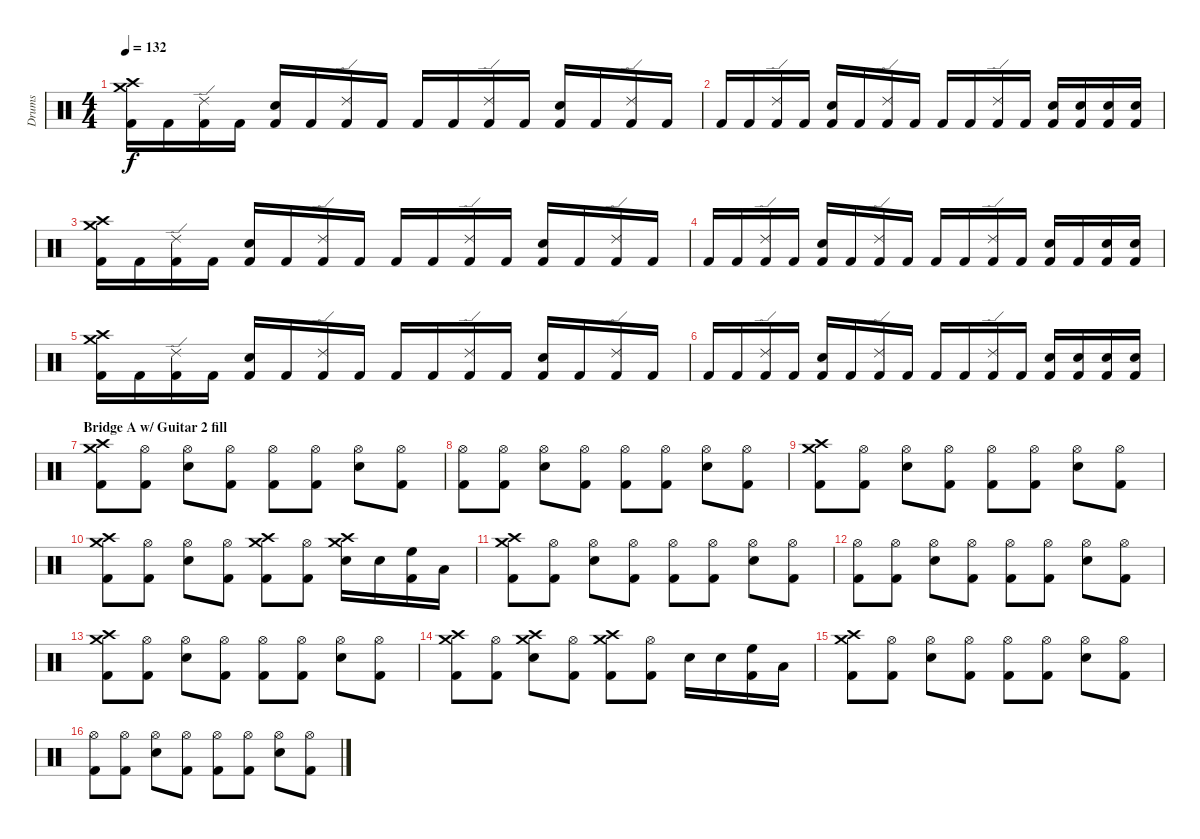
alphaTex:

\track ("Drums" "Drums") {instrument percussion}
\staff {score}
\articulation defaults
\ts (4 4)
\tempo 132
\clef neutral
\ks c
("Crash medium (hit)" "Crash high (hit)" "Kick (hit) 2").16{dy f} "Kick (hit) 2".16 ("Ride (edge) 2" "Kick (hit) 2").16 "Kick (hit) 2".16 ("Electric Snare (hit)" "Kick (hit) 2").16 "Kick (hit) 2".16 ("Ride (edge) 2" "Kick (hit) 2").16 "Kick (hit) 2".16 "Kick (hit) 2".16 "Kick (hit) 2".16 ("Ride (edge) 2" "Kick (hit) 2").16 "Kick (hit) 2".16 ("Electric Snare (hit)" "Kick (hit) 2").16 "Kick (hit) 2".16 ("Ride (edge) 2" "Kick (hit) 2").16 "Kick (hit) 2".16 |
"Kick (hit) 2".16 "Kick (hit) 2".16 ("Ride (edge) 2" "Kick (hit) 2").16 "Kick (hit) 2".16 ("Electric Snare (hit)" "Kick (hit) 2").16 "Kick (hit) 2".16 ("Ride (edge) 2" "Kick (hit) 2").16 "Kick (hit) 2".16 "Kick (hit) 2".16 "Kick (hit) 2".16 ("Ride (edge) 2" "Kick (hit) 2").16 "Kick (hit) 2".16 ("Electric Snare (hit)" "Kick (hit) 2").16 ("Electric Snare (hit)" "Kick (hit) 2").16 ("Electric Snare (hit)" "Kick (hit) 2").16 ("Electric Snare (hit)" "Kick (hit) 2").16 |
("Crash medium (hit)" "Crash high (hit)" "Kick (hit) 2").16 "Kick (hit) 2".16 ("Ride (edge) 2" "Kick (hit) 2").16 "Kick (hit) 2".16 ("Electric Snare (hit)" "Kick (hit) 2").16 "Kick (hit) 2".16 ("Ride (edge) 2" "Kick (hit) 2").16 "Kick (hit) 2".16 "Kick (hit) 2".16 "Kick (hit) 2".16 ("Ride (edge) 2" "Kick (hit) 2").16 "Kick (hit) 2".16 ("Electric Snare (hit)" "Kick (hit) 2").16 "Kick (hit) 2".16 ("Ride (edge) 2" "Kick (hit) 2").16 "Kick (hit) 2".16 |
"Kick (hit) 2".16 "Kick (hit) 2".16 ("Ride (edge) 2" "Kick (hit) 2").16 "Kick (hit) 2".16 ("Electric Snare (hit)" "Kick (hit) 2").16 "Kick (hit) 2".16 ("Ride (edge) 2" "Kick (hit) 2").16 "Kick (hit) 2".16 "Kick (hit) 2".16 "Kick (hit) 2".16 ("Ride (edge) 2" "Kick (hit) 2").16 "Kick (hit) 2".16 ("Electric Snare (hit)" "Kick (hit) 2").16 "Kick (hit) 2".16 ("Electric Snare (hit)" "Kick (hit) 2").16 ("Electric Snare (hit)" "Kick (hit) 2").16 |
("Crash medium (hit)" "Crash high (hit)" "Kick (hit) 2").16 "Kick (hit) 2".16 ("Ride (edge) 2" "Kick (hit) 2").16 "Kick (hit) 2".16 ("Electric Snare (hit)" "Kick (hit) 2").16 "Kick (hit) 2".16 ("Ride (edge) 2" "Kick (hit) 2").16 "Kick (hit) 2".16 "Kick (hit) 2".16 "Kick (hit) 2".16 ("Ride (edge) 2" "Kick (hit) 2").16 "Kick (hit) 2".16 ("Electric Snare (hit)" "Kick (hit) 2").16 "Kick (hit) 2".16 ("Ride (edge) 2" "Kick (hit) 2").16 "Kick (hit) 2".16 |
"Kick (hit) 2".16 "Kick (hit) 2".16 ("Ride (edge) 2" "Kick (hit) 2").16 "Kick (hit) 2".16 ("Electric Snare (hit)" "Kick (hit) 2").16 "Kick (hit) 2".16 ("Ride (edge) 2" "Kick (hit) 2").16 "Kick (hit) 2".16 "Kick (hit) 2".16 "Kick (hit) 2".16 ("Ride (edge) 2" "Kick (hit) 2").16 "Kick (hit) 2".16 ("Electric Snare (hit)" "Kick (hit) 2").16 ("Electric Snare (hit)" "Kick (hit) 2").16 ("Electric Snare (hit)" "Kick (hit) 2").16 ("Electric Snare (hit)" "Kick (hit) 2").16 |
\section ("" "Bridge A w/ Guitar 2 fill")
("Crash medium (hit)" "Crash high (hit)" "Kick (hit) 2").8 ("Hi-Hat (open)" "Kick (hit) 2").8 ("Hi-Hat (open)" "Electric Snare (hit)").8 ("Hi-Hat (open)" "Kick (hit) 2").8 ("Hi-Hat (open)" "Kick (hit) 2").8 ("Hi-Hat (open)" "Kick (hit) 2").8 ("Hi-Hat (open)" "Electric Snare (hit)").8 ("Hi-Hat (open)" "Kick (hit) 2").8 |
("Hi-Hat (open)" "Kick (hit) 2").8 ("Hi-Hat (open)" "Kick (hit) 2").8 ("Hi-Hat (open)" "Electric Snare (hit)").8 ("Hi-Hat (open)" "Kick (hit) 2").8 ("Hi-Hat (open)" "Kick (hit) 2").8 ("Hi-Hat (open)" "Kick (hit) 2").8 ("Hi-Hat (open)" "Electric Snare (hit)").8 ("Hi-Hat (open)" "Kick (hit) 2").8 |
("Crash medium (hit)" "Crash high (hit)" "Kick (hit) 2").8 ("Hi-Hat (open)" "Kick (hit) 2").8 ("Hi-Hat (open)" "Electric Snare (hit)").8 ("Hi-Hat (open)" "Kick (hit) 2").8 ("Hi-Hat (open)" "Kick (hit) 2").8 ("Hi-Hat (open)" "Kick (hit) 2").8 ("Hi-Hat (open)" "Electric Snare (hit)").8 ("Hi-Hat (open)" "Kick (hit) 2").8 |
("Crash medium (hit)" "Crash high (hit)" "Kick (hit) 2").8 ("Hi-Hat (open)" "Kick (hit) 2").8 ("Hi-Hat (open)" "Electric Snare (hit)").8 ("Hi-Hat (open)" "Kick (hit) 2").8 ("Crash medium (hit)" "Crash high (hit)" "Kick (hit) 2").8 ("Hi-Hat (open)" "Kick (hit) 2").8 ("Crash medium (hit)" "Crash high (hit)" "Electric Snare (hit)").16 "Electric Snare (hit)".16 ("High Floor Tom (hit)" "Kick (hit) 2").16 "Low Tom (hit)".16 |
("Crash medium (hit)" "Crash high (hit)" "Kick (hit) 2").8 ("Hi-Hat (open)" "Kick (hit) 2").8 ("Hi-Hat (open)" "Electric Snare (hit)").8 ("Hi-Hat (open)" "Kick (hit) 2").8 ("Hi-Hat (open)" "Kick (hit) 2").8 ("Hi-Hat (open)" "Kick (hit) 2").8 ("Hi-Hat (open)" "Electric Snare (hit)").8 ("Hi-Hat (open)" "Kick (hit) 2").8 |
("Hi-Hat (open)" "Kick (hit) 2").8 ("Hi-Hat (open)" "Kick (hit) 2").8 ("Hi-Hat (open)" "Electric Snare (hit)").8 ("Hi-Hat (open)" "Kick (hit) 2").8 ("Hi-Hat (open)" "Kick (hit) 2").8 ("Hi-Hat (open)" "Kick (hit) 2").8 ("Hi-Hat (open)" "Electric Snare (hit)").8 ("Hi-Hat (open)" "Kick (hit) 2").8 |
("Crash medium (hit)" "Crash high (hit)" "Kick (hit) 2").8 ("Hi-Hat (open)" "Kick (hit) 2").8 ("Hi-Hat (open)" "Electric Snare (hit)").8 ("Hi-Hat (open)" "Kick (hit) 2").8 ("Hi-Hat (open)" "Kick (hit) 2").8 ("Hi-Hat (open)" "Kick (hit) 2").8 ("Hi-Hat (open)" "Electric Snare (hit)").8 ("Hi-Hat (open)" "Kick (hit) 2").8 |
("Crash medium (hit)" "Crash high (hit)" "Kick (hit) 2").8 ("Hi-Hat (open)" "Kick (hit) 2").8 ("Crash medium (hit)" "Crash high (hit)" "Electric Snare (hit)").8 ("Hi-Hat (open)" "Kick (hit) 2").8 ("Crash medium (hit)" "Crash high (hit)" "Kick (hit) 2").8 ("Hi-Hat (open)" "Kick (hit) 2").8 "Electric Snare (hit)".16 "Electric Snare (hit)".16 ("High Floor Tom (hit)" "Kick (hit) 2").16 "Low Tom (hit)".16 |
("Crash medium (hit)" "Crash high (hit)" "Kick (hit) 2").8 ("Hi-Hat (open)" "Kick (hit) 2").8 ("Hi-Hat (open)" "Electric Snare (hit)").8 ("Hi-Hat (open)" "Kick (hit) 2").8 ("Hi-Hat (open)" "Kick (hit) 2").8 ("Hi-Hat (open)" "Kick (hit) 2").8 ("Hi-Hat (open)" "Electric Snare (hit)").8 ("Hi-Hat (open)" "Kick (hit) 2").8 |
("Hi-Hat (open)" "Kick (hit) 2").8 ("Hi-Hat (open)" "Kick (hit) 2").8 ("Hi-Hat (open)" "Electric Snare (hit)").8 ("Hi-Hat (open)" "Kick (hit) 2").8 ("Hi-Hat (open)" "Kick (hit) 2").8 ("Hi-Hat (open)" "Kick (hit) 2").8 ("Hi-Hat (open)" "Electric Snare (hit)").8 ("Hi-Hat (open)" "Kick (hit) 2").8
